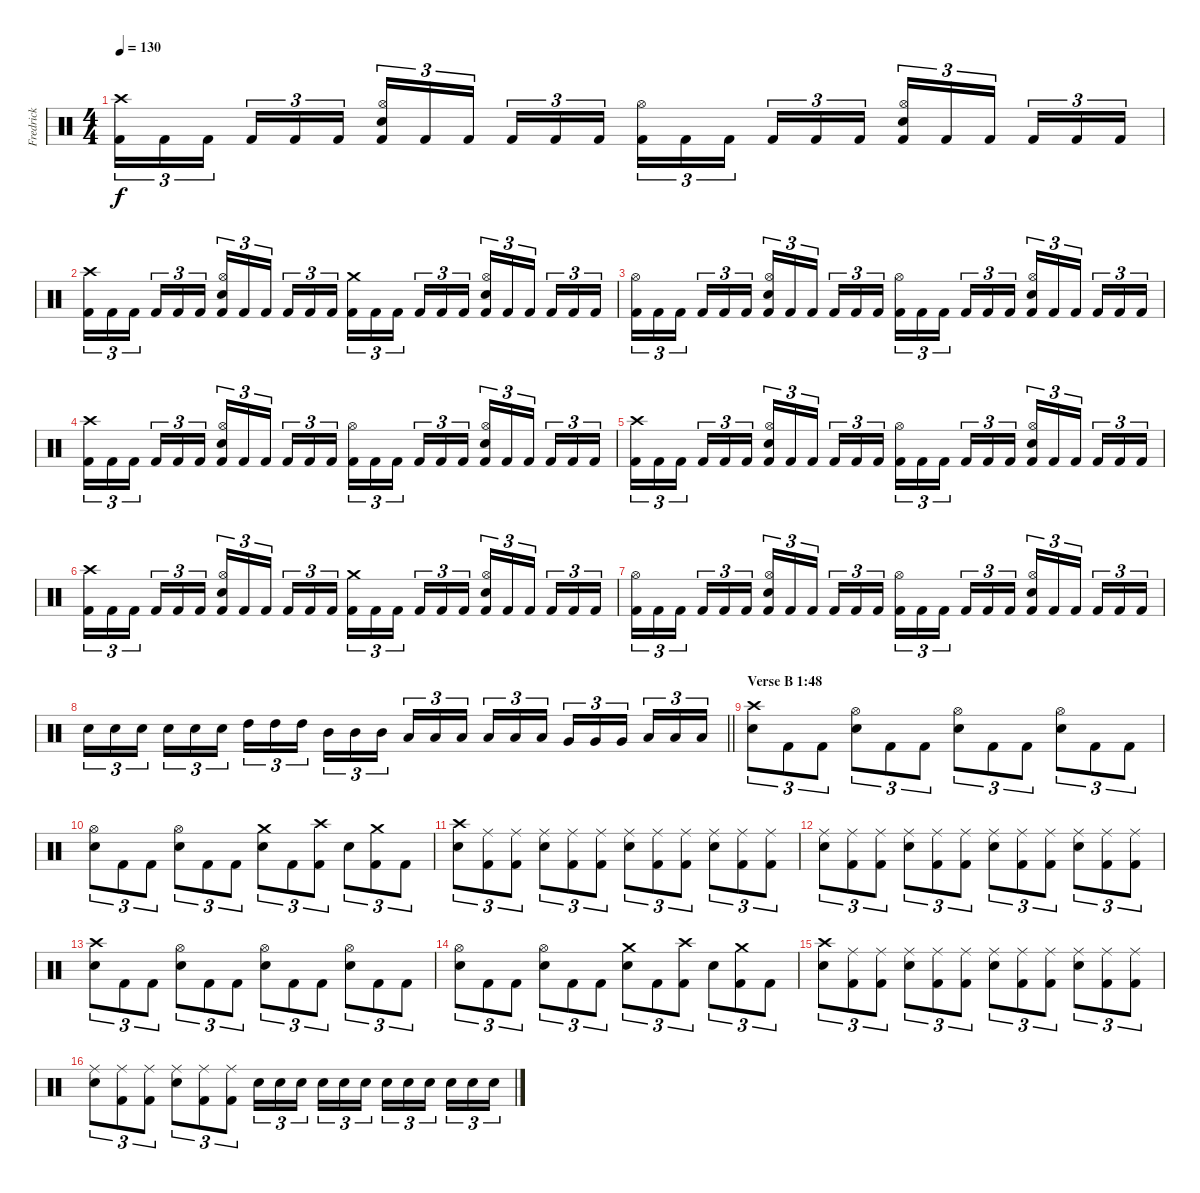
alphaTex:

\track ("Fredrick" "Fredrick") {instrument percussion}
\staff {score}
\articulation defaults
\ts (4 4)
\tempo 130
\clef neutral
\ks c
("Crash high (hit)" "Kick (hit) 2").16{tu (3 2) dy f} "Kick (hit) 2".16{tu (3 2)} "Kick (hit) 2".16{tu (3 2) beam splitsecondary} "Kick (hit) 2".16{tu (3 2)} "Kick (hit) 2".16{tu (3 2)} "Kick (hit) 2".16{tu (3 2)} ("Hi-Hat (open)" "Electric Snare (hit)" "Kick (hit) 2").16{tu (3 2)} "Kick (hit) 2".16{tu (3 2)} "Kick (hit) 2".16{tu (3 2) beam splitsecondary} "Kick (hit) 2".16{tu (3 2)} "Kick (hit) 2".16{tu (3 2)} "Kick (hit) 2".16{tu (3 2)} ("Hi-Hat (open)" "Kick (hit) 2").16{tu (3 2)} "Kick (hit) 2".16{tu (3 2)} "Kick (hit) 2".16{tu (3 2) beam splitsecondary} "Kick (hit) 2".16{tu (3 2)} "Kick (hit) 2".16{tu (3 2)} "Kick (hit) 2".16{tu (3 2)} ("Hi-Hat (open)" "Electric Snare (hit)" "Kick (hit) 2").16{tu (3 2)} "Kick (hit) 2".16{tu (3 2)} "Kick (hit) 2".16{tu (3 2) beam splitsecondary} "Kick (hit) 2".16{tu (3 2)} "Kick (hit) 2".16{tu (3 2)} "Kick (hit) 2".16{tu (3 2)} |
("Crash high (hit)" "Kick (hit) 2").16{tu (3 2)} "Kick (hit) 2".16{tu (3 2)} "Kick (hit) 2".16{tu (3 2) beam splitsecondary} "Kick (hit) 2".16{tu (3 2)} "Kick (hit) 2".16{tu (3 2)} "Kick (hit) 2".16{tu (3 2)} ("Hi-Hat (open)" "Electric Snare (hit)" "Kick (hit) 2").16{tu (3 2)} "Kick (hit) 2".16{tu (3 2)} "Kick (hit) 2".16{tu (3 2) beam splitsecondary} "Kick (hit) 2".16{tu (3 2)} "Kick (hit) 2".16{tu (3 2)} "Kick (hit) 2".16{tu (3 2)} ("Crash medium (hit)" "Kick (hit) 2").16{tu (3 2)} "Kick (hit) 2".16{tu (3 2)} "Kick (hit) 2".16{tu (3 2) beam splitsecondary} "Kick (hit) 2".16{tu (3 2)} "Kick (hit) 2".16{tu (3 2)} "Kick (hit) 2".16{tu (3 2)} ("Hi-Hat (open)" "Electric Snare (hit)" "Kick (hit) 2").16{tu (3 2)} "Kick (hit) 2".16{tu (3 2)} "Kick (hit) 2".16{tu (3 2) beam splitsecondary} "Kick (hit) 2".16{tu (3 2)} "Kick (hit) 2".16{tu (3 2)} "Kick (hit) 2".16{tu (3 2)} |
("Hi-Hat (open)" "Kick (hit) 2").16{tu (3 2)} "Kick (hit) 2".16{tu (3 2)} "Kick (hit) 2".16{tu (3 2) beam splitsecondary} "Kick (hit) 2".16{tu (3 2)} "Kick (hit) 2".16{tu (3 2)} "Kick (hit) 2".16{tu (3 2)} ("Hi-Hat (open)" "Electric Snare (hit)" "Kick (hit) 2").16{tu (3 2)} "Kick (hit) 2".16{tu (3 2)} "Kick (hit) 2".16{tu (3 2) beam splitsecondary} "Kick (hit) 2".16{tu (3 2)} "Kick (hit) 2".16{tu (3 2)} "Kick (hit) 2".16{tu (3 2)} ("Hi-Hat (open)" "Kick (hit) 2").16{tu (3 2)} "Kick (hit) 2".16{tu (3 2)} "Kick (hit) 2".16{tu (3 2) beam splitsecondary} "Kick (hit) 2".16{tu (3 2)} "Kick (hit) 2".16{tu (3 2)} "Kick (hit) 2".16{tu (3 2)} ("Hi-Hat (open)" "Electric Snare (hit)" "Kick (hit) 2").16{tu (3 2)} "Kick (hit) 2".16{tu (3 2)} "Kick (hit) 2".16{tu (3 2) beam splitsecondary} "Kick (hit) 2".16{tu (3 2)} "Kick (hit) 2".16{tu (3 2)} "Kick (hit) 2".16{tu (3 2)} |
("Crash high (hit)" "Kick (hit) 2").16{tu (3 2)} "Kick (hit) 2".16{tu (3 2)} "Kick (hit) 2".16{tu (3 2) beam splitsecondary} "Kick (hit) 2".16{tu (3 2)} "Kick (hit) 2".16{tu (3 2)} "Kick (hit) 2".16{tu (3 2)} ("Hi-Hat (open)" "Electric Snare (hit)" "Kick (hit) 2").16{tu (3 2)} "Kick (hit) 2".16{tu (3 2)} "Kick (hit) 2".16{tu (3 2) beam splitsecondary} "Kick (hit) 2".16{tu (3 2)} "Kick (hit) 2".16{tu (3 2)} "Kick (hit) 2".16{tu (3 2)} ("Hi-Hat (open)" "Kick (hit) 2").16{tu (3 2)} "Kick (hit) 2".16{tu (3 2)} "Kick (hit) 2".16{tu (3 2) beam splitsecondary} "Kick (hit) 2".16{tu (3 2)} "Kick (hit) 2".16{tu (3 2)} "Kick (hit) 2".16{tu (3 2)} ("Hi-Hat (open)" "Electric Snare (hit)" "Kick (hit) 2").16{tu (3 2)} "Kick (hit) 2".16{tu (3 2)} "Kick (hit) 2".16{tu (3 2) beam splitsecondary} "Kick (hit) 2".16{tu (3 2)} "Kick (hit) 2".16{tu (3 2)} "Kick (hit) 2".16{tu (3 2)} |
("Crash high (hit)" "Kick (hit) 2").16{tu (3 2)} "Kick (hit) 2".16{tu (3 2)} "Kick (hit) 2".16{tu (3 2) beam splitsecondary} "Kick (hit) 2".16{tu (3 2)} "Kick (hit) 2".16{tu (3 2)} "Kick (hit) 2".16{tu (3 2)} ("Hi-Hat (open)" "Electric Snare (hit)" "Kick (hit) 2").16{tu (3 2)} "Kick (hit) 2".16{tu (3 2)} "Kick (hit) 2".16{tu (3 2) beam splitsecondary} "Kick (hit) 2".16{tu (3 2)} "Kick (hit) 2".16{tu (3 2)} "Kick (hit) 2".16{tu (3 2)} ("Hi-Hat (open)" "Kick (hit) 2").16{tu (3 2)} "Kick (hit) 2".16{tu (3 2)} "Kick (hit) 2".16{tu (3 2) beam splitsecondary} "Kick (hit) 2".16{tu (3 2)} "Kick (hit) 2".16{tu (3 2)} "Kick (hit) 2".16{tu (3 2)} ("Hi-Hat (open)" "Electric Snare (hit)" "Kick (hit) 2").16{tu (3 2)} "Kick (hit) 2".16{tu (3 2)} "Kick (hit) 2".16{tu (3 2) beam splitsecondary} "Kick (hit) 2".16{tu (3 2)} "Kick (hit) 2".16{tu (3 2)} "Kick (hit) 2".16{tu (3 2)} |
("Crash high (hit)" "Kick (hit) 2").16{tu (3 2)} "Kick (hit) 2".16{tu (3 2)} "Kick (hit) 2".16{tu (3 2) beam splitsecondary} "Kick (hit) 2".16{tu (3 2)} "Kick (hit) 2".16{tu (3 2)} "Kick (hit) 2".16{tu (3 2)} ("Hi-Hat (open)" "Electric Snare (hit)" "Kick (hit) 2").16{tu (3 2)} "Kick (hit) 2".16{tu (3 2)} "Kick (hit) 2".16{tu (3 2) beam splitsecondary} "Kick (hit) 2".16{tu (3 2)} "Kick (hit) 2".16{tu (3 2)} "Kick (hit) 2".16{tu (3 2)} ("Crash medium (hit)" "Kick (hit) 2").16{tu (3 2)} "Kick (hit) 2".16{tu (3 2)} "Kick (hit) 2".16{tu (3 2) beam splitsecondary} "Kick (hit) 2".16{tu (3 2)} "Kick (hit) 2".16{tu (3 2)} "Kick (hit) 2".16{tu (3 2)} ("Hi-Hat (open)" "Electric Snare (hit)" "Kick (hit) 2").16{tu (3 2)} "Kick (hit) 2".16{tu (3 2)} "Kick (hit) 2".16{tu (3 2) beam splitsecondary} "Kick (hit) 2".16{tu (3 2)} "Kick (hit) 2".16{tu (3 2)} "Kick (hit) 2".16{tu (3 2)} |
("Hi-Hat (open)" "Kick (hit) 2").16{tu (3 2)} "Kick (hit) 2".16{tu (3 2)} "Kick (hit) 2".16{tu (3 2) beam splitsecondary} "Kick (hit) 2".16{tu (3 2)} "Kick (hit) 2".16{tu (3 2)} "Kick (hit) 2".16{tu (3 2)} ("Hi-Hat (open)" "Electric Snare (hit)" "Kick (hit) 2").16{tu (3 2)} "Kick (hit) 2".16{tu (3 2)} "Kick (hit) 2".16{tu (3 2) beam splitsecondary} "Kick (hit) 2".16{tu (3 2)} "Kick (hit) 2".16{tu (3 2)} "Kick (hit) 2".16{tu (3 2)} ("Hi-Hat (open)" "Kick (hit) 2").16{tu (3 2)} "Kick (hit) 2".16{tu (3 2)} "Kick (hit) 2".16{tu (3 2) beam splitsecondary} "Kick (hit) 2".16{tu (3 2)} "Kick (hit) 2".16{tu (3 2)} "Kick (hit) 2".16{tu (3 2)} ("Hi-Hat (open)" "Electric Snare (hit)" "Kick (hit) 2").16{tu (3 2)} "Kick (hit) 2".16{tu (3 2)} "Kick (hit) 2".16{tu (3 2) beam splitsecondary} "Kick (hit) 2".16{tu (3 2)} "Kick (hit) 2".16{tu (3 2)} "Kick (hit) 2".16{tu (3 2)} |
\barLineRight lightlight "Electric Snare (hit)".16{tu (3 2)} "Electric Snare (hit)".16{tu (3 2)} "Electric Snare (hit)".16{tu (3 2) beam splitsecondary} "Electric Snare (hit)".16{tu (3 2)} "Electric Snare (hit)".16{tu (3 2)} "Electric Snare (hit)".16{tu (3 2)} "High Tom (hit)".16{tu (3 2)} "High Tom (hit)".16{tu (3 2)} "High Tom (hit)".16{tu (3 2) beam splitsecondary} "Mid Tom (hit)".16{tu (3 2)} "Mid Tom (hit)".16{tu (3 2)} "Mid Tom (hit)".16{tu (3 2)} "Low Tom (hit)".16{tu (3 2)} "Low Tom (hit)".16{tu (3 2)} "Low Tom (hit)".16{tu (3 2) beam splitsecondary} "Low Tom (hit)".16{tu (3 2)} "Low Tom (hit)".16{tu (3 2)} "Low Tom (hit)".16{tu (3 2)} "Very Low Tom (hit)".16{tu (3 2)} "Very Low Tom (hit)".16{tu (3 2)} "Very Low Tom (hit)".16{tu (3 2) beam splitsecondary} "Low Floor Tom (hit)".16{tu (3 2)} "Low Floor Tom (hit)".16{tu (3 2)} "Low Floor Tom (hit)".16{tu (3 2)}
|
\section ("" "Verse B 1:48")
("Crash high (hit)" "Electric Snare (hit)").8{tu (3 2)} "Kick (hit) 2".8{tu (3 2)} "Kick (hit) 2".8{tu (3 2)} ("Hi-Hat (open)" "Electric Snare (hit)").8{tu (3 2)} "Kick (hit) 2".8{tu (3 2)} "Kick (hit) 2".8{tu (3 2)} ("Hi-Hat (open)" "Electric Snare (hit)").8{tu (3 2)} "Kick (hit) 2".8{tu (3 2)} "Kick (hit) 2".8{tu (3 2)} ("Hi-Hat (open)" "Electric Snare (hit)").8{tu (3 2)} "Kick (hit) 2".8{tu (3 2)} "Kick (hit) 2".8{tu (3 2)} |
("Hi-Hat (open)" "Electric Snare (hit)").8{tu (3 2)} "Kick (hit) 2".8{tu (3 2)} "Kick (hit) 2".8{tu (3 2)} ("Hi-Hat (open)" "Electric Snare (hit)").8{tu (3 2)} "Kick (hit) 2".8{tu (3 2)} "Kick (hit) 2".8{tu (3 2)} ("Crash medium (hit)" "Electric Snare (hit)").8{tu (3 2)} "Kick (hit) 2".8{tu (3 2)} ("Crash high (hit)" "Kick (hit) 2").8{tu (3 2)} "Electric Snare (hit)".8{tu (3 2)} ("Crash medium (hit)" "Kick (hit) 2").8{tu (3 2)} "Kick (hit) 2".8{tu (3 2)} |
("Crash high (hit)" "Electric Snare (hit)").8{tu (3 2)} ("Ride (middle)" "Kick (hit) 2").8{tu (3 2)} ("Ride (middle)" "Kick (hit) 2").8{tu (3 2)} ("Ride (middle)" "Electric Snare (hit)").8{tu (3 2)} ("Ride (middle)" "Kick (hit) 2").8{tu (3 2)} ("Ride (middle)" "Kick (hit) 2").8{tu (3 2)} ("Ride (middle)" "Electric Snare (hit)").8{tu (3 2)} ("Ride (middle)" "Kick (hit) 2").8{tu (3 2)} ("Ride (middle)" "Kick (hit) 2").8{tu (3 2)} ("Ride (middle)" "Electric Snare (hit)").8{tu (3 2)} ("Ride (middle)" "Kick (hit) 2").8{tu (3 2)} ("Ride (middle)" "Kick (hit) 2").8{tu (3 2)} |
("Ride (middle)" "Electric Snare (hit)").8{tu (3 2)} ("Ride (middle)" "Kick (hit) 2").8{tu (3 2)} ("Ride (middle)" "Kick (hit) 2").8{tu (3 2)} ("Ride (middle)" "Electric Snare (hit)").8{tu (3 2)} ("Ride (middle)" "Kick (hit) 2").8{tu (3 2)} ("Ride (middle)" "Kick (hit) 2").8{tu (3 2)} ("Ride (middle)" "Electric Snare (hit)").8{tu (3 2)} ("Ride (middle)" "Kick (hit) 2").8{tu (3 2)} ("Ride (middle)" "Kick (hit) 2").8{tu (3 2)} ("Ride (middle)" "Electric Snare (hit)").8{tu (3 2)} ("Ride (middle)" "Kick (hit) 2").8{tu (3 2)} ("Ride (middle)" "Kick (hit) 2").8{tu (3 2)} |
("Crash high (hit)" "Electric Snare (hit)").8{tu (3 2)} "Kick (hit) 2".8{tu (3 2)} "Kick (hit) 2".8{tu (3 2)} ("Hi-Hat (open)" "Electric Snare (hit)").8{tu (3 2)} "Kick (hit) 2".8{tu (3 2)} "Kick (hit) 2".8{tu (3 2)} ("Hi-Hat (open)" "Electric Snare (hit)").8{tu (3 2)} "Kick (hit) 2".8{tu (3 2)} "Kick (hit) 2".8{tu (3 2)} ("Hi-Hat (open)" "Electric Snare (hit)").8{tu (3 2)} "Kick (hit) 2".8{tu (3 2)} "Kick (hit) 2".8{tu (3 2)} |
("Hi-Hat (open)" "Electric Snare (hit)").8{tu (3 2)} "Kick (hit) 2".8{tu (3 2)} "Kick (hit) 2".8{tu (3 2)} ("Hi-Hat (open)" "Electric Snare (hit)").8{tu (3 2)} "Kick (hit) 2".8{tu (3 2)} "Kick (hit) 2".8{tu (3 2)} ("Crash medium (hit)" "Electric Snare (hit)").8{tu (3 2)} "Kick (hit) 2".8{tu (3 2)} ("Crash high (hit)" "Kick (hit) 2").8{tu (3 2)} "Electric Snare (hit)".8{tu (3 2)} ("Crash medium (hit)" "Kick (hit) 2").8{tu (3 2)} "Kick (hit) 2".8{tu (3 2)} |
("Crash high (hit)" "Electric Snare (hit)").8{tu (3 2)} ("Ride (middle)" "Kick (hit) 2").8{tu (3 2)} ("Ride (middle)" "Kick (hit) 2").8{tu (3 2)} ("Ride (middle)" "Electric Snare (hit)").8{tu (3 2)} ("Ride (middle)" "Kick (hit) 2").8{tu (3 2)} ("Ride (middle)" "Kick (hit) 2").8{tu (3 2)} ("Ride (middle)" "Electric Snare (hit)").8{tu (3 2)} ("Ride (middle)" "Kick (hit) 2").8{tu (3 2)} ("Ride (middle)" "Kick (hit) 2").8{tu (3 2)} ("Ride (middle)" "Electric Snare (hit)").8{tu (3 2)} ("Ride (middle)" "Kick (hit) 2").8{tu (3 2)} ("Ride (middle)" "Kick (hit) 2").8{tu (3 2)} |
("Ride (middle)" "Electric Snare (hit)").8{tu (3 2)} ("Ride (middle)" "Kick (hit) 2").8{tu (3 2)} ("Ride (middle)" "Kick (hit) 2").8{tu (3 2)} ("Ride (middle)" "Electric Snare (hit)").8{tu (3 2)} ("Ride (middle)" "Kick (hit) 2").8{tu (3 2)} ("Ride (middle)" "Kick (hit) 2").8{tu (3 2)} "Electric Snare (hit)".16{tu (3 2)} "Electric Snare (hit)".16{tu (3 2)} "Electric Snare (hit)".16{tu (3 2) beam splitsecondary} "Electric Snare (hit)".16{tu (3 2)} "Electric Snare (hit)".16{tu (3 2)} "Electric Snare (hit)".16{tu (3 2)} "Electric Snare (hit)".16{tu (3 2)} "Electric Snare (hit)".16{tu (3 2)} "Electric Snare (hit)".16{tu (3 2) beam splitsecondary} "Electric Snare (hit)".16{tu (3 2)} "Electric Snare (hit)".16{tu (3 2)} "Electric Snare (hit)".16{tu (3 2)}
